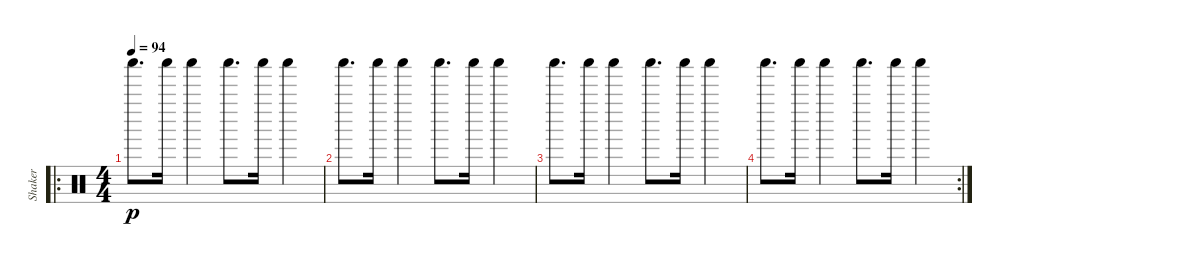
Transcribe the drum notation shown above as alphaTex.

\track ("Shaker" "Shaker") {instrument percussion}
\staff {score}
\articulation defaults
\ro
\ts (4 4)
\tempo 94
\clef neutral
\ks c "Shaker (hit)".8{d dy p} "Shaker (hit)".16 "Shaker (hit)".4 "Shaker (hit)".8{d} "Shaker (hit)".16 "Shaker (hit)".4
|
"Shaker (hit)".8{d} "Shaker (hit)".16 "Shaker (hit)".4 "Shaker (hit)".8{d} "Shaker (hit)".16 "Shaker (hit)".4 |
"Shaker (hit)".8{d} "Shaker (hit)".16 "Shaker (hit)".4 "Shaker (hit)".8{d} "Shaker (hit)".16 "Shaker (hit)".4 |
\rc 2 "Shaker (hit)".8{d} "Shaker (hit)".16 "Shaker (hit)".4 "Shaker (hit)".8{d} "Shaker (hit)".16 "Shaker (hit)".4
